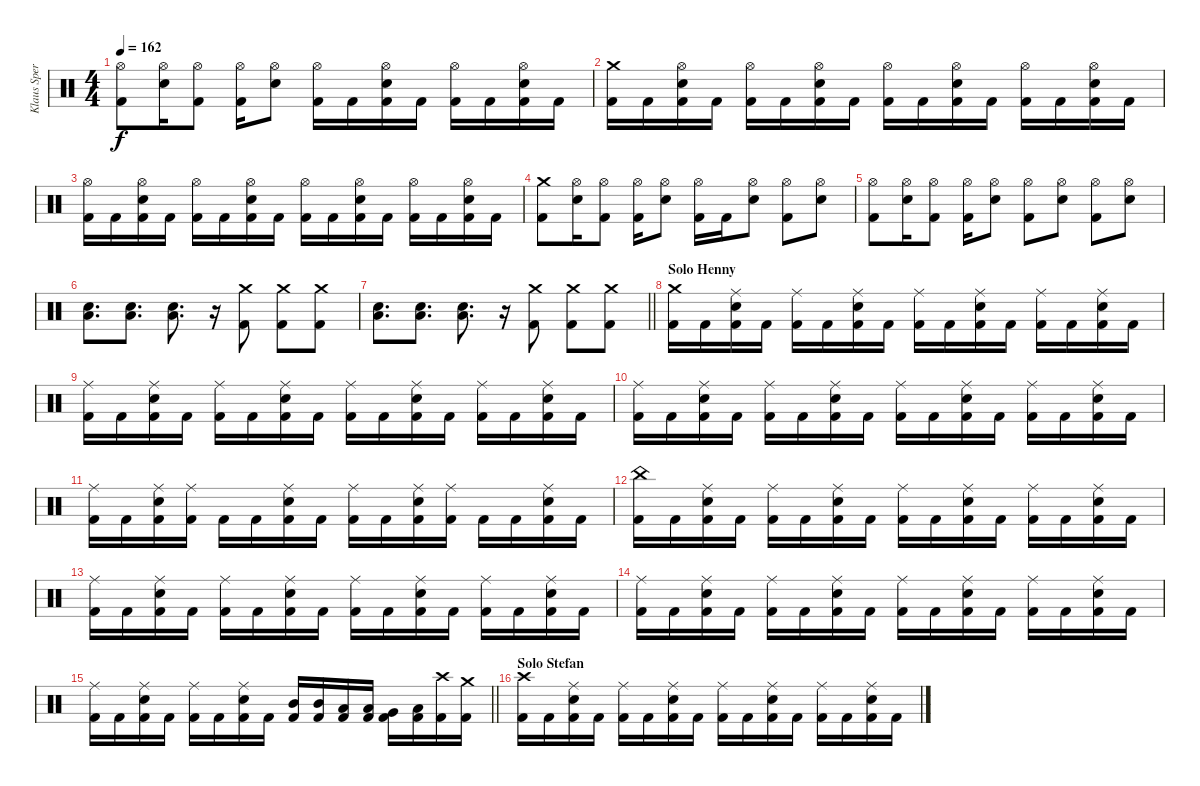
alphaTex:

\track ("Klaus Sperling" "Klaus Sper") {instrument percussion}
\staff {score}
\articulation defaults
\ts (4 4)
\tempo 162
\clef neutral
\ks c
("Hi-Hat (open)" "Kick (hit) 2").8{dy f} ("Hi-Hat (open)" "Electric Snare (hit)").16 ("Hi-Hat (open)" "Kick (hit) 2").8 ("Hi-Hat (open)" "Kick (hit) 2").16 ("Hi-Hat (open)" "Electric Snare (hit)").8 ("Hi-Hat (open)" "Kick (hit) 2").16 "Kick (hit) 2".16 ("Hi-Hat (open)" "Electric Snare (hit)" "Kick (hit) 2").16 "Kick (hit) 2".16 ("Hi-Hat (open)" "Kick (hit) 2").16 "Kick (hit) 2".16 ("Hi-Hat (open)" "Electric Snare (hit)" "Kick (hit) 2").16 "Kick (hit) 2".16 |
("Crash medium (hit)" "Kick (hit) 2").16 "Kick (hit) 2".16 ("Hi-Hat (open)" "Electric Snare (hit)" "Kick (hit) 2").16 "Kick (hit) 2".16 ("Hi-Hat (open)" "Kick (hit) 2").16 "Kick (hit) 2".16 ("Hi-Hat (open)" "Electric Snare (hit)" "Kick (hit) 2").16 "Kick (hit) 2".16 ("Hi-Hat (open)" "Kick (hit) 2").16 "Kick (hit) 2".16 ("Hi-Hat (open)" "Electric Snare (hit)" "Kick (hit) 2").16 "Kick (hit) 2".16 ("Hi-Hat (open)" "Kick (hit) 2").16 "Kick (hit) 2".16 ("Hi-Hat (open)" "Electric Snare (hit)" "Kick (hit) 2").16 "Kick (hit) 2".16 |
("Hi-Hat (open)" "Kick (hit) 2").16 "Kick (hit) 2".16 ("Hi-Hat (open)" "Electric Snare (hit)" "Kick (hit) 2").16 "Kick (hit) 2".16 ("Hi-Hat (open)" "Kick (hit) 2").16 "Kick (hit) 2".16 ("Hi-Hat (open)" "Electric Snare (hit)" "Kick (hit) 2").16 "Kick (hit) 2".16 ("Hi-Hat (open)" "Kick (hit) 2").16 "Kick (hit) 2".16 ("Hi-Hat (open)" "Electric Snare (hit)" "Kick (hit) 2").16 "Kick (hit) 2".16 ("Hi-Hat (open)" "Kick (hit) 2").16 "Kick (hit) 2".16 ("Hi-Hat (open)" "Electric Snare (hit)" "Kick (hit) 2").16 "Kick (hit) 2".16 |
("Crash medium (hit)" "Kick (hit) 2").8 ("Hi-Hat (open)" "Electric Snare (hit)").16 ("Hi-Hat (open)" "Kick (hit) 2").8 ("Hi-Hat (open)" "Kick (hit) 2").16 ("Hi-Hat (open)" "Electric Snare (hit)").8 ("Hi-Hat (open)" "Kick (hit) 2").16 "Kick (hit) 2".16 ("Hi-Hat (open)" "Electric Snare (hit)").8 ("Hi-Hat (open)" "Kick (hit) 2").8 ("Hi-Hat (open)" "Electric Snare (hit)").8 |
("Hi-Hat (open)" "Kick (hit) 2").8 ("Hi-Hat (open)" "Electric Snare (hit)").16 ("Hi-Hat (open)" "Kick (hit) 2").8 ("Hi-Hat (open)" "Kick (hit) 2").16 ("Hi-Hat (open)" "Electric Snare (hit)").8 ("Hi-Hat (open)" "Kick (hit) 2").8 ("Hi-Hat (open)" "Electric Snare (hit)").8 ("Hi-Hat (open)" "Kick (hit) 2").8 ("Hi-Hat (open)" "Electric Snare (hit)").8 |
("Electric Snare (hit)" "Low Floor Tom (hit)").8{d} ("Electric Snare (hit)" "Low Floor Tom (hit)").8{d} ("Electric Snare (hit)" "Low Floor Tom (hit)").8{d} r.16 ("Crash medium (hit)" "Kick (hit) 2").8 ("Crash medium (hit)" "Kick (hit) 2").8 ("Crash medium (hit)" "Kick (hit) 2").8 |
\barLineRight lightlight
("Electric Snare (hit)" "Low Floor Tom (hit)").8{d} ("Electric Snare (hit)" "Low Floor Tom (hit)").8{d} ("Electric Snare (hit)" "Low Floor Tom (hit)").8{d} r.16 ("Crash medium (hit)" "Kick (hit) 2").8 ("Crash medium (hit)" "Kick (hit) 2").8 ("Crash medium (hit)" "Kick (hit) 2").8 |
\section ("" "Solo Henny")
("Crash medium (hit)" "Kick (hit) 2").16 "Kick (hit) 2".16 ("Ride (middle)" "Electric Snare (hit)" "Kick (hit) 2").16 "Kick (hit) 2".16 ("Ride (middle)" "Kick (hit) 2").16 "Kick (hit) 2".16 ("Ride (middle)" "Electric Snare (hit)" "Kick (hit) 2").16 "Kick (hit) 2".16 ("Ride (middle)" "Kick (hit) 2").16 "Kick (hit) 2".16 ("Ride (middle)" "Electric Snare (hit)" "Kick (hit) 2").16 "Kick (hit) 2".16 ("Ride (middle)" "Kick (hit) 2").16 "Kick (hit) 2".16 ("Ride (middle)" "Electric Snare (hit)" "Kick (hit) 2").16 "Kick (hit) 2".16 |
("Ride (middle)" "Kick (hit) 2").16 "Kick (hit) 2".16 ("Ride (middle)" "Electric Snare (hit)" "Kick (hit) 2").16 "Kick (hit) 2".16 ("Ride (middle)" "Kick (hit) 2").16 "Kick (hit) 2".16 ("Ride (middle)" "Electric Snare (hit)" "Kick (hit) 2").16 "Kick (hit) 2".16 ("Ride (middle)" "Kick (hit) 2").16 "Kick (hit) 2".16 ("Ride (middle)" "Electric Snare (hit)" "Kick (hit) 2").16 "Kick (hit) 2".16 ("Ride (middle)" "Kick (hit) 2").16 "Kick (hit) 2".16 ("Ride (middle)" "Electric Snare (hit)" "Kick (hit) 2").16 "Kick (hit) 2".16 |
("Ride (middle)" "Kick (hit) 2").16 "Kick (hit) 2".16 ("Ride (middle)" "Electric Snare (hit)" "Kick (hit) 2").16 "Kick (hit) 2".16 ("Ride (middle)" "Kick (hit) 2").16 "Kick (hit) 2".16 ("Ride (middle)" "Electric Snare (hit)" "Kick (hit) 2").16 "Kick (hit) 2".16 ("Ride (middle)" "Kick (hit) 2").16 "Kick (hit) 2".16 ("Ride (middle)" "Electric Snare (hit)" "Kick (hit) 2").16 "Kick (hit) 2".16 ("Ride (middle)" "Kick (hit) 2").16 "Kick (hit) 2".16 ("Ride (middle)" "Electric Snare (hit)" "Kick (hit) 2").16 "Kick (hit) 2".16 |
("Ride (middle)" "Kick (hit) 2").16 "Kick (hit) 2".16 ("Ride (middle)" "Electric Snare (hit)" "Kick (hit) 2").16 ("Ride (middle)" "Kick (hit) 2").16 "Kick (hit) 2".16 "Kick (hit) 2".16 ("Ride (middle)" "Electric Snare (hit)" "Kick (hit) 2").16 "Kick (hit) 2".16 ("Ride (middle)" "Kick (hit) 2").16 "Kick (hit) 2".16 ("Ride (middle)" "Electric Snare (hit)" "Kick (hit) 2").16 ("Ride (middle)" "Kick (hit) 2").16 "Kick (hit) 2".16 "Kick (hit) 2".16 ("Ride (middle)" "Electric Snare (hit)" "Kick (hit) 2").16 "Kick (hit) 2".16 |
("China (hit)" "Kick (hit) 2").16 "Kick (hit) 2".16 ("Ride (middle)" "Electric Snare (hit)" "Kick (hit) 2").16 "Kick (hit) 2".16 ("Ride (middle)" "Kick (hit) 2").16 "Kick (hit) 2".16 ("Ride (middle)" "Electric Snare (hit)" "Kick (hit) 2").16 "Kick (hit) 2".16 ("Ride (middle)" "Kick (hit) 2").16 "Kick (hit) 2".16 ("Ride (middle)" "Electric Snare (hit)" "Kick (hit) 2").16 "Kick (hit) 2".16 ("Ride (middle)" "Kick (hit) 2").16 "Kick (hit) 2".16 ("Ride (middle)" "Electric Snare (hit)" "Kick (hit) 2").16 "Kick (hit) 2".16 |
("Ride (middle)" "Kick (hit) 2").16 "Kick (hit) 2".16 ("Ride (middle)" "Electric Snare (hit)" "Kick (hit) 2").16 "Kick (hit) 2".16 ("Ride (middle)" "Kick (hit) 2").16 "Kick (hit) 2".16 ("Ride (middle)" "Electric Snare (hit)" "Kick (hit) 2").16 "Kick (hit) 2".16 ("Ride (middle)" "Kick (hit) 2").16 "Kick (hit) 2".16 ("Ride (middle)" "Electric Snare (hit)" "Kick (hit) 2").16 "Kick (hit) 2".16 ("Ride (middle)" "Kick (hit) 2").16 "Kick (hit) 2".16 ("Ride (middle)" "Electric Snare (hit)" "Kick (hit) 2").16 "Kick (hit) 2".16 |
("Ride (middle)" "Kick (hit) 2").16 "Kick (hit) 2".16 ("Ride (middle)" "Electric Snare (hit)" "Kick (hit) 2").16 "Kick (hit) 2".16 ("Ride (middle)" "Kick (hit) 2").16 "Kick (hit) 2".16 ("Ride (middle)" "Electric Snare (hit)" "Kick (hit) 2").16 "Kick (hit) 2".16 ("Ride (middle)" "Kick (hit) 2").16 "Kick (hit) 2".16 ("Ride (middle)" "Electric Snare (hit)" "Kick (hit) 2").16 "Kick (hit) 2".16 ("Ride (middle)" "Kick (hit) 2").16 "Kick (hit) 2".16 ("Ride (middle)" "Electric Snare (hit)" "Kick (hit) 2").16 "Kick (hit) 2".16 |
\barLineRight lightlight
("Ride (middle)" "Kick (hit) 2").16 "Kick (hit) 2".16 ("Ride (middle)" "Electric Snare (hit)" "Kick (hit) 2").16 "Kick (hit) 2".16 ("Ride (middle)" "Kick (hit) 2").16 "Kick (hit) 2".16 ("Ride (middle)" "Electric Snare (hit)" "Kick (hit) 2").16 "Kick (hit) 2".16 ("Mid Tom (hit)" "Kick (hit) 2").16 ("Mid Tom (hit)" "Kick (hit) 2").16 ("Low Tom (hit)" "Kick (hit) 2").16 ("Low Tom (hit)" "Kick (hit) 2").16 ("Very Low Tom (hit)" "Kick (hit) 2").16 ("Low Floor Tom (hit)" "Kick (hit) 2").16 ("Crash high (hit)" "Kick (hit) 2").16 ("Crash medium (hit)" "Kick (hit) 2").16 |
\section ("" "Solo Stefan")
("Crash high (hit)" "Kick (hit) 2").16 "Kick (hit) 2".16 ("Ride (middle)" "Electric Snare (hit)" "Kick (hit) 2").16 "Kick (hit) 2".16 ("Ride (middle)" "Kick (hit) 2").16 "Kick (hit) 2".16 ("Ride (middle)" "Electric Snare (hit)" "Kick (hit) 2").16 "Kick (hit) 2".16 ("Ride (middle)" "Kick (hit) 2").16 "Kick (hit) 2".16 ("Ride (middle)" "Electric Snare (hit)" "Kick (hit) 2").16 "Kick (hit) 2".16 ("Ride (middle)" "Kick (hit) 2").16 "Kick (hit) 2".16 ("Ride (middle)" "Electric Snare (hit)" "Kick (hit) 2").16 "Kick (hit) 2".16
